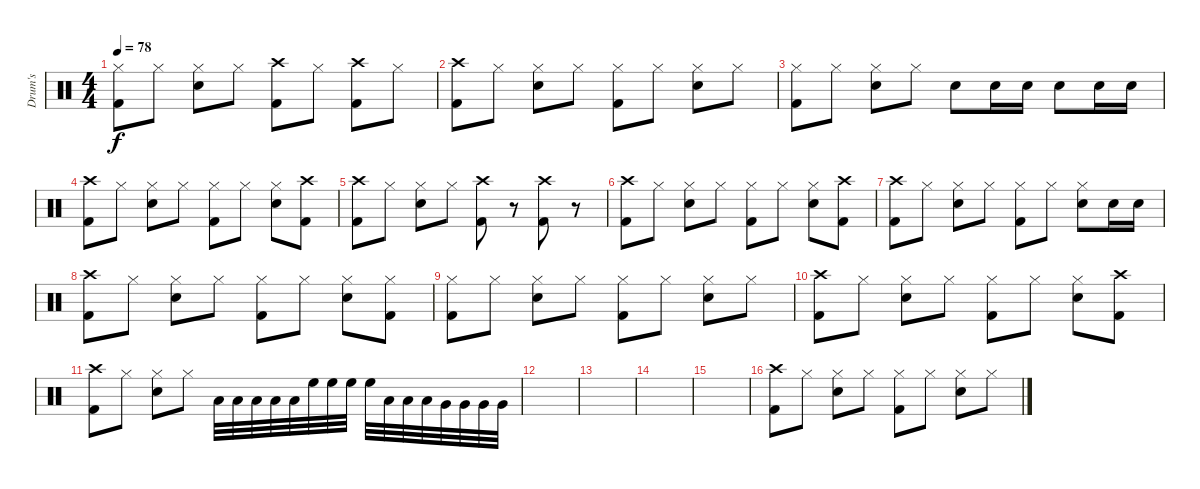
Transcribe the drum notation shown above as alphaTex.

\track ("Drum's " "Drum's ") {instrument percussion}
\staff {score}
\articulation defaults
\ts (4 4)
\tempo 78
\clef neutral
\ks c
("Hi-Hat (closed)" "Kick (hit) 2").8{dy f} "Hi-Hat (closed)".8 ("Hi-Hat (closed)" "Snare (hit) 2").8 "Hi-Hat (closed)".8 ("Crash high (hit)" "Kick (hit) 2").8 "Hi-Hat (closed)".8 ("Crash high (hit)" "Kick (hit) 2").8 "Hi-Hat (closed)".8 |
("Crash high (hit)" "Kick (hit) 2").8 "Hi-Hat (closed)".8 ("Hi-Hat (closed)" "Snare (hit) 2").8 "Hi-Hat (closed)".8 ("Hi-Hat (closed)" "Kick (hit) 2").8 "Hi-Hat (closed)".8 ("Hi-Hat (closed)" "Snare (hit) 2").8 "Hi-Hat (closed)".8 |
("Hi-Hat (closed)" "Kick (hit) 2").8 "Hi-Hat (closed)".8 ("Hi-Hat (closed)" "Snare (hit) 2").8 "Hi-Hat (closed)".8 "Snare (hit) 2".8 "Snare (hit) 2".16 "Snare (hit) 2".16 "Snare (hit) 2".8 "Snare (hit) 2".16 "Snare (hit) 2".16 |
("Crash high (hit)" "Kick (hit) 2").8 "Hi-Hat (closed)".8 ("Hi-Hat (closed)" "Snare (hit) 2").8 "Hi-Hat (closed)".8 ("Hi-Hat (closed)" "Kick (hit) 2").8 "Hi-Hat (closed)".8 ("Hi-Hat (closed)" "Snare (hit) 2").8 ("Crash high (hit)" "Kick (hit) 2").8 |
("Crash high (hit)" "Kick (hit) 2").8 "Hi-Hat (closed)".8 ("Hi-Hat (closed)" "Snare (hit) 2").8 "Hi-Hat (closed)".8 ("Crash high (hit)" "Kick (hit) 2").8 r.8 ("Crash high (hit)" "Kick (hit) 2").8 r.8 |
("Crash high (hit)" "Kick (hit) 2").8 "Hi-Hat (closed)".8 ("Hi-Hat (closed)" "Snare (hit) 2").8 "Hi-Hat (closed)".8 ("Hi-Hat (closed)" "Kick (hit) 2").8 "Hi-Hat (closed)".8 ("Hi-Hat (closed)" "Snare (hit) 2").8 ("Crash high (hit)" "Kick (hit) 2").8 |
("Crash high (hit)" "Kick (hit) 2").8 "Hi-Hat (closed)".8 ("Hi-Hat (closed)" "Snare (hit) 2").8 "Hi-Hat (closed)".8 ("Hi-Hat (closed)" "Kick (hit) 2").8 "Hi-Hat (closed)".8 ("Hi-Hat (closed)" "Snare (hit) 2").8 "Snare (hit) 2".16 "Snare (hit) 2".16 |
("Crash high (hit)" "Kick (hit) 2").8 "Hi-Hat (closed)".8 ("Hi-Hat (closed)" "Snare (hit) 2").8 "Hi-Hat (closed)".8 ("Hi-Hat (closed)" "Kick (hit) 2").8 "Hi-Hat (closed)".8 ("Hi-Hat (closed)" "Snare (hit) 2").8 ("Hi-Hat (closed)" "Kick (hit) 2").8 |
("Hi-Hat (closed)" "Kick (hit) 2").8 "Hi-Hat (closed)".8 ("Hi-Hat (closed)" "Snare (hit) 2").8 "Hi-Hat (closed)".8 ("Hi-Hat (closed)" "Kick (hit) 2").8 "Hi-Hat (closed)".8 ("Hi-Hat (closed)" "Snare (hit) 2").8 "Hi-Hat (closed)".8 |
("Crash high (hit)" "Kick (hit) 2").8 "Hi-Hat (closed)".8 ("Hi-Hat (closed)" "Snare (hit) 2").8 "Hi-Hat (closed)".8 ("Hi-Hat (closed)" "Kick (hit) 2").8 "Hi-Hat (closed)".8 ("Hi-Hat (closed)" "Snare (hit) 2").8 ("Crash high (hit)" "Kick (hit) 2").8 |
("Crash high (hit)" "Kick (hit) 2").8 "Hi-Hat (closed)".8 ("Hi-Hat (closed)" "Snare (hit) 2").8 "Hi-Hat (closed)".8 "Low Tom (hit)".32 "Low Tom (hit)".32 "Low Tom (hit)".32 "Low Tom (hit)".32 "Low Tom (hit)".32 "High Floor Tom (hit)".32 "High Floor Tom (hit)".32 "High Floor Tom (hit)".32 "High Floor Tom (hit)".32 "Low Floor Tom (hit)".32 "Low Floor Tom (hit)".32 "Low Floor Tom (hit)".32 "Very Low Tom (hit)".32 "Very Low Tom (hit)".32 "Very Low Tom (hit)".32 "Very Low Tom (hit)".32 |
|
|
|
|
("Crash high (hit)" "Kick (hit) 2").8 "Hi-Hat (closed)".8 ("Hi-Hat (closed)" "Snare (hit) 2").8 "Hi-Hat (closed)".8 ("Hi-Hat (closed)" "Kick (hit) 2").8 "Hi-Hat (closed)".8 ("Hi-Hat (closed)" "Snare (hit) 2").8 "Hi-Hat (closed)".8
